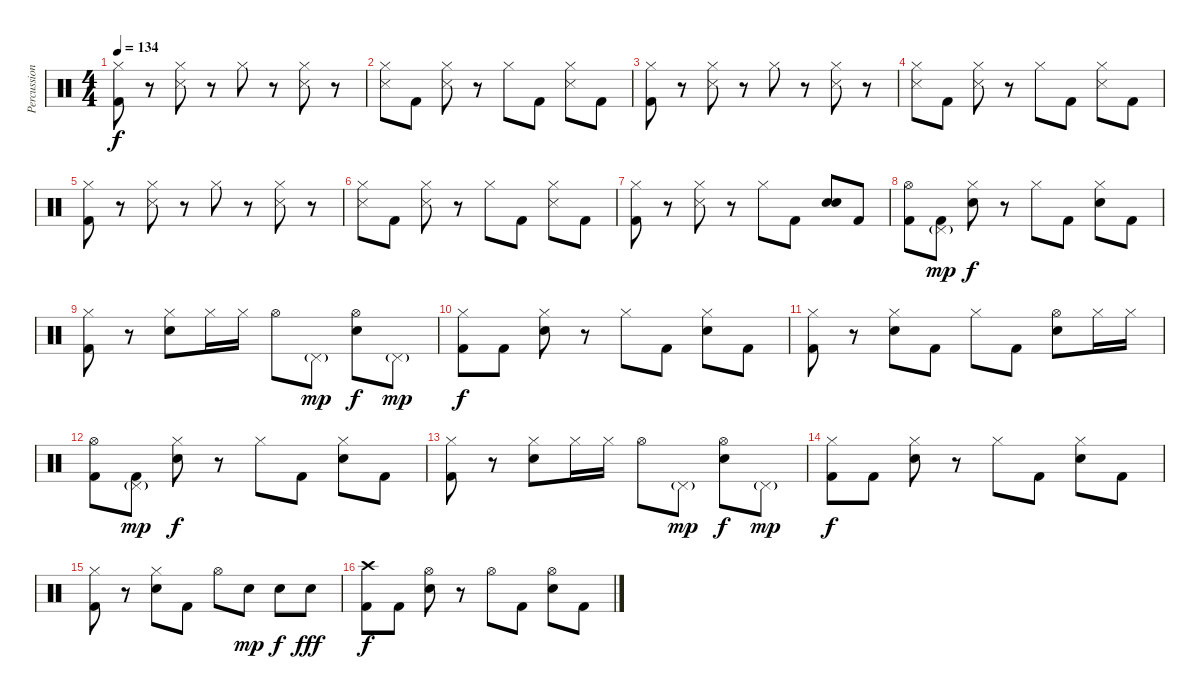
\track ("Percussion" "Percussion") {instrument percussion}
\staff {score}
\articulation defaults
\ts (4 4)
\tempo 134
\clef neutral
\ks c
("Hi-Hat (closed)" "Kick (hit) 2").8{dy f} r.8 ("Hi-Hat (closed)" "Snare (side stick) 3").8 r.8 "Hi-Hat (closed)".8 r.8 ("Hi-Hat (closed)" "Snare (side stick) 3").8 r.8 |
("Hi-Hat (closed)" "Snare (side stick) 3").8 "Kick (hit) 2".8 ("Hi-Hat (closed)" "Snare (side stick) 3").8 r.8 "Hi-Hat (closed)".8 "Kick (hit) 2".8 ("Hi-Hat (closed)" "Snare (side stick) 3").8 "Kick (hit) 2".8 |
("Hi-Hat (closed)" "Kick (hit) 2").8 r.8 ("Hi-Hat (closed)" "Snare (side stick) 3").8 r.8 "Hi-Hat (closed)".8 r.8 ("Hi-Hat (closed)" "Snare (side stick) 3").8 r.8 |
("Hi-Hat (closed)" "Snare (side stick) 3").8 "Kick (hit) 2".8 ("Hi-Hat (closed)" "Snare (side stick) 3").8 r.8 "Hi-Hat (closed)".8 "Kick (hit) 2".8 ("Hi-Hat (closed)" "Snare (side stick) 3").8 "Kick (hit) 2".8 |
("Hi-Hat (closed)" "Kick (hit) 2").8 r.8 ("Hi-Hat (closed)" "Snare (side stick) 3").8 r.8 "Hi-Hat (closed)".8 r.8 ("Hi-Hat (closed)" "Snare (side stick) 3").8 r.8 |
("Hi-Hat (closed)" "Snare (side stick) 3").8 "Kick (hit) 2".8 ("Hi-Hat (closed)" "Snare (side stick) 3").8 r.8 "Hi-Hat (closed)".8 "Kick (hit) 2".8 ("Hi-Hat (closed)" "Snare (side stick) 3").8 "Kick (hit) 2".8 |
("Hi-Hat (closed)" "Kick (hit) 2").8 r.8 ("Hi-Hat (closed)" "Snare (side stick) 3").8 r.8 "Hi-Hat (closed)".8 "Kick (hit) 2".8 ("Snare (hit) 2" "Snare (hit) 2").8{bd 240} "Kick (hit) 2".8 |
("Hi-Hat (open)" "Kick (hit) 2").8 ("Pedal Hi-Hat (hit)"{g} "Kick (hit) 2").8{dy mp} ("Hi-Hat (closed)" "Snare (hit) 2").8{dy f} r.8 "Hi-Hat (closed)".8 "Kick (hit) 2".8 ("Hi-Hat (closed)" "Snare (hit) 2").8 "Kick (hit) 2".8 |
("Hi-Hat (closed)" "Kick (hit) 2").8 r.8 ("Hi-Hat (closed)" "Snare (hit) 2").8 "Hi-Hat (closed)".16 "Hi-Hat (closed)".16 "Hi-Hat (open)".8 "Pedal Hi-Hat (hit)"{g}.8{dy mp} ("Hi-Hat (open)" "Snare (hit) 2").8{dy f} "Pedal Hi-Hat (hit)"{g}.8{dy mp} |
("Hi-Hat (closed)" "Kick (hit) 2").8{dy f} "Kick (hit) 2".8 ("Hi-Hat (closed)" "Snare (hit) 2").8 r.8 "Hi-Hat (closed)".8 "Kick (hit) 2".8 ("Hi-Hat (closed)" "Snare (hit) 2").8 "Kick (hit) 2".8 |
("Hi-Hat (closed)" "Kick (hit) 2").8 r.8 ("Hi-Hat (closed)" "Snare (hit) 2").8 "Kick (hit) 2".8 "Hi-Hat (closed)".8 "Kick (hit) 2".8 ("Hi-Hat (open)" "Snare (hit) 2").8 "Hi-Hat (closed)".16 "Hi-Hat (closed)".16 |
("Hi-Hat (open)" "Kick (hit) 2").8 ("Pedal Hi-Hat (hit)"{g} "Kick (hit) 2").8{dy mp} ("Hi-Hat (closed)" "Snare (hit) 2").8{dy f} r.8 "Hi-Hat (closed)".8 "Kick (hit) 2".8 ("Hi-Hat (closed)" "Snare (hit) 2").8 "Kick (hit) 2".8 |
("Hi-Hat (closed)" "Kick (hit) 2").8 r.8 ("Hi-Hat (closed)" "Snare (hit) 2").8 "Hi-Hat (closed)".16 "Hi-Hat (closed)".16 "Hi-Hat (open)".8 "Pedal Hi-Hat (hit)"{g}.8{dy mp} ("Hi-Hat (open)" "Snare (hit) 2").8{dy f} "Pedal Hi-Hat (hit)"{g}.8{dy mp} |
("Hi-Hat (closed)" "Kick (hit) 2").8{dy f} "Kick (hit) 2".8 ("Hi-Hat (closed)" "Snare (hit) 2").8 r.8 "Hi-Hat (closed)".8 "Kick (hit) 2".8 ("Hi-Hat (closed)" "Snare (hit) 2").8 "Kick (hit) 2".8 |
("Hi-Hat (closed)" "Kick (hit) 2").8 r.8 ("Hi-Hat (closed)" "Snare (hit) 2").8 "Kick (hit) 2".8 "Hi-Hat (open)".8 "Snare (hit) 2".8{dy mp} "Snare (hit) 2".8{dy f} "Snare (hit) 2".8{dy fff} |
("Crash high (hit)" "Kick (hit) 2").8{dy f} "Kick (hit) 2".8 ("Hi-Hat (open)" "Snare (hit) 2").8 r.8 "Hi-Hat (open)".8 "Kick (hit) 2".8 ("Hi-Hat (open)" "Snare (hit) 2").8 "Kick (hit) 2".8
